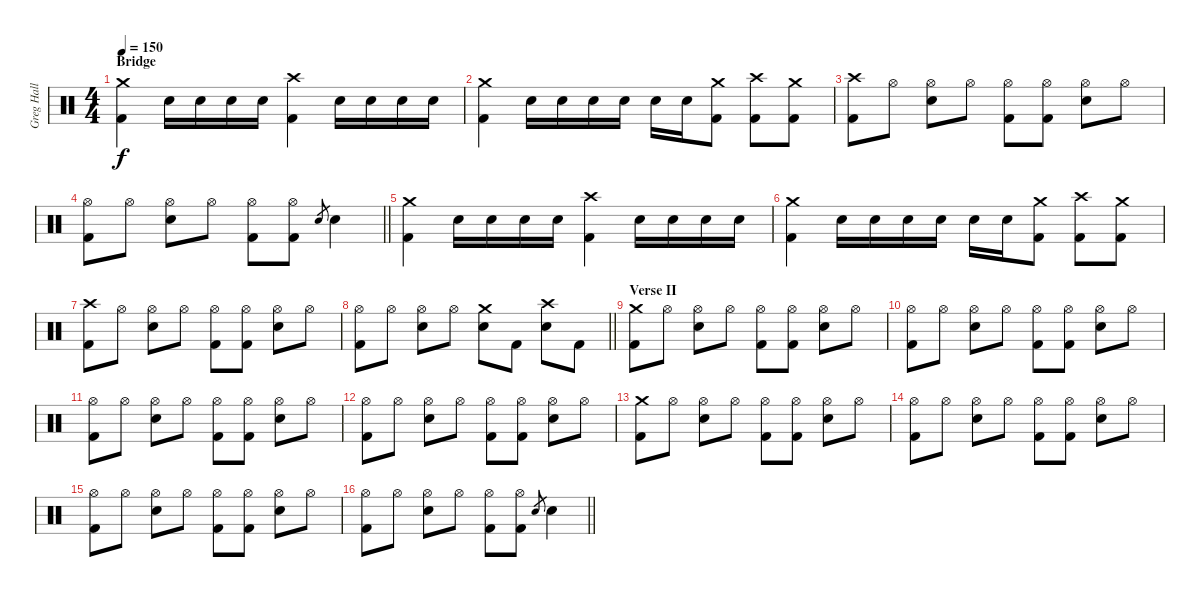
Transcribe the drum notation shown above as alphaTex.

\track ("Greg Hall" "Greg Hall") {instrument percussion}
\staff {score}
\articulation defaults
\ts (4 4)
\section ("" "Bridge")
\tempo 150
\clef neutral
\ks c
("Crash medium (hit)" "Kick (hit) 2").4{dy f} "Electric Snare (hit)".16 "Electric Snare (hit)".16 "Electric Snare (hit)".16 "Electric Snare (hit)".16 ("Crash high (hit)" "Kick (hit) 2").4 "Electric Snare (hit)".16 "Electric Snare (hit)".16 "Electric Snare (hit)".16 "Electric Snare (hit)".16 |
("Crash medium (hit)" "Kick (hit) 2").4 "Electric Snare (hit)".16 "Electric Snare (hit)".16 "Electric Snare (hit)".16 "Electric Snare (hit)".16 "Electric Snare (hit)".16 "Electric Snare (hit)".16 ("Crash medium (hit)" "Kick (hit) 2").8 ("Crash high (hit)" "Kick (hit) 2").8 ("Crash medium (hit)" "Kick (hit) 2").8 |
("Crash high (hit)" "Kick (hit) 2").8 "Hi-Hat (open)".8 ("Hi-Hat (open)" "Electric Snare (hit)").8 "Hi-Hat (open)".8 ("Hi-Hat (open)" "Kick (hit) 2").8 ("Hi-Hat (open)" "Kick (hit) 2").8 ("Hi-Hat (open)" "Electric Snare (hit)").8 "Hi-Hat (open)".8 |
\barLineRight lightlight
("Hi-Hat (open)" "Kick (hit) 2").8 "Hi-Hat (open)".8 ("Hi-Hat (open)" "Electric Snare (hit)").8 "Hi-Hat (open)".8 ("Hi-Hat (open)" "Kick (hit) 2").8 ("Hi-Hat (open)" "Kick (hit) 2").8 "Electric Snare (hit)".8{gr} "Electric Snare (hit)".4 |
("Crash medium (hit)" "Kick (hit) 2").4 "Electric Snare (hit)".16 "Electric Snare (hit)".16 "Electric Snare (hit)".16 "Electric Snare (hit)".16 ("Crash high (hit)" "Kick (hit) 2").4 "Electric Snare (hit)".16 "Electric Snare (hit)".16 "Electric Snare (hit)".16 "Electric Snare (hit)".16 |
("Crash medium (hit)" "Kick (hit) 2").4 "Electric Snare (hit)".16 "Electric Snare (hit)".16 "Electric Snare (hit)".16 "Electric Snare (hit)".16 "Electric Snare (hit)".16 "Electric Snare (hit)".16 ("Crash medium (hit)" "Kick (hit) 2").8 ("Crash high (hit)" "Kick (hit) 2").8 ("Crash medium (hit)" "Kick (hit) 2").8 |
("Crash high (hit)" "Kick (hit) 2").8 "Hi-Hat (open)".8 ("Hi-Hat (open)" "Electric Snare (hit)").8 "Hi-Hat (open)".8 ("Hi-Hat (open)" "Kick (hit) 2").8 ("Hi-Hat (open)" "Kick (hit) 2").8 ("Hi-Hat (open)" "Electric Snare (hit)").8 "Hi-Hat (open)".8 |
\barLineRight lightlight
("Hi-Hat (open)" "Kick (hit) 2").8 "Hi-Hat (open)".8 ("Hi-Hat (open)" "Electric Snare (hit)").8 "Hi-Hat (open)".8 ("Crash medium (hit)" "Electric Snare (hit)").8 "Kick (hit) 2".8 ("Crash high (hit)" "Electric Snare (hit)").8 "Kick (hit) 2".8 |
\section ("" "Verse II")
("Crash medium (hit)" "Kick (hit) 2").8 "Hi-Hat (open)".8 ("Hi-Hat (open)" "Electric Snare (hit)").8 "Hi-Hat (open)".8 ("Hi-Hat (open)" "Kick (hit) 2").8 ("Hi-Hat (open)" "Kick (hit) 2").8 ("Hi-Hat (open)" "Electric Snare (hit)").8 "Hi-Hat (open)".8 |
("Hi-Hat (open)" "Kick (hit) 2").8 "Hi-Hat (open)".8 ("Hi-Hat (open)" "Electric Snare (hit)").8 "Hi-Hat (open)".8 ("Hi-Hat (open)" "Kick (hit) 2").8 ("Hi-Hat (open)" "Kick (hit) 2").8 ("Hi-Hat (open)" "Electric Snare (hit)").8 "Hi-Hat (open)".8 |
("Hi-Hat (open)" "Kick (hit) 2").8 "Hi-Hat (open)".8 ("Hi-Hat (open)" "Electric Snare (hit)").8 "Hi-Hat (open)".8 ("Hi-Hat (open)" "Kick (hit) 2").8 ("Hi-Hat (open)" "Kick (hit) 2").8 ("Hi-Hat (open)" "Electric Snare (hit)").8 "Hi-Hat (open)".8 |
("Hi-Hat (open)" "Kick (hit) 2").8 "Hi-Hat (open)".8 ("Hi-Hat (open)" "Electric Snare (hit)").8 "Hi-Hat (open)".8 ("Hi-Hat (open)" "Kick (hit) 2").8 ("Hi-Hat (open)" "Kick (hit) 2").8 ("Hi-Hat (open)" "Electric Snare (hit)").8 "Hi-Hat (open)".8 |
("Crash medium (hit)" "Kick (hit) 2").8 "Hi-Hat (open)".8 ("Hi-Hat (open)" "Electric Snare (hit)").8 "Hi-Hat (open)".8 ("Hi-Hat (open)" "Kick (hit) 2").8 ("Hi-Hat (open)" "Kick (hit) 2").8 ("Hi-Hat (open)" "Electric Snare (hit)").8 "Hi-Hat (open)".8 |
("Hi-Hat (open)" "Kick (hit) 2").8 "Hi-Hat (open)".8 ("Hi-Hat (open)" "Electric Snare (hit)").8 "Hi-Hat (open)".8 ("Hi-Hat (open)" "Kick (hit) 2").8 ("Hi-Hat (open)" "Kick (hit) 2").8 ("Hi-Hat (open)" "Electric Snare (hit)").8 "Hi-Hat (open)".8 |
("Hi-Hat (open)" "Kick (hit) 2").8 "Hi-Hat (open)".8 ("Hi-Hat (open)" "Electric Snare (hit)").8 "Hi-Hat (open)".8 ("Hi-Hat (open)" "Kick (hit) 2").8 ("Hi-Hat (open)" "Kick (hit) 2").8 ("Hi-Hat (open)" "Electric Snare (hit)").8 "Hi-Hat (open)".8 |
\barLineRight lightlight
("Hi-Hat (open)" "Kick (hit) 2").8 "Hi-Hat (open)".8 ("Hi-Hat (open)" "Electric Snare (hit)").8 "Hi-Hat (open)".8 ("Hi-Hat (open)" "Kick (hit) 2").8 ("Hi-Hat (open)" "Kick (hit) 2").8 "Electric Snare (hit)".8{gr} "Electric Snare (hit)".4
